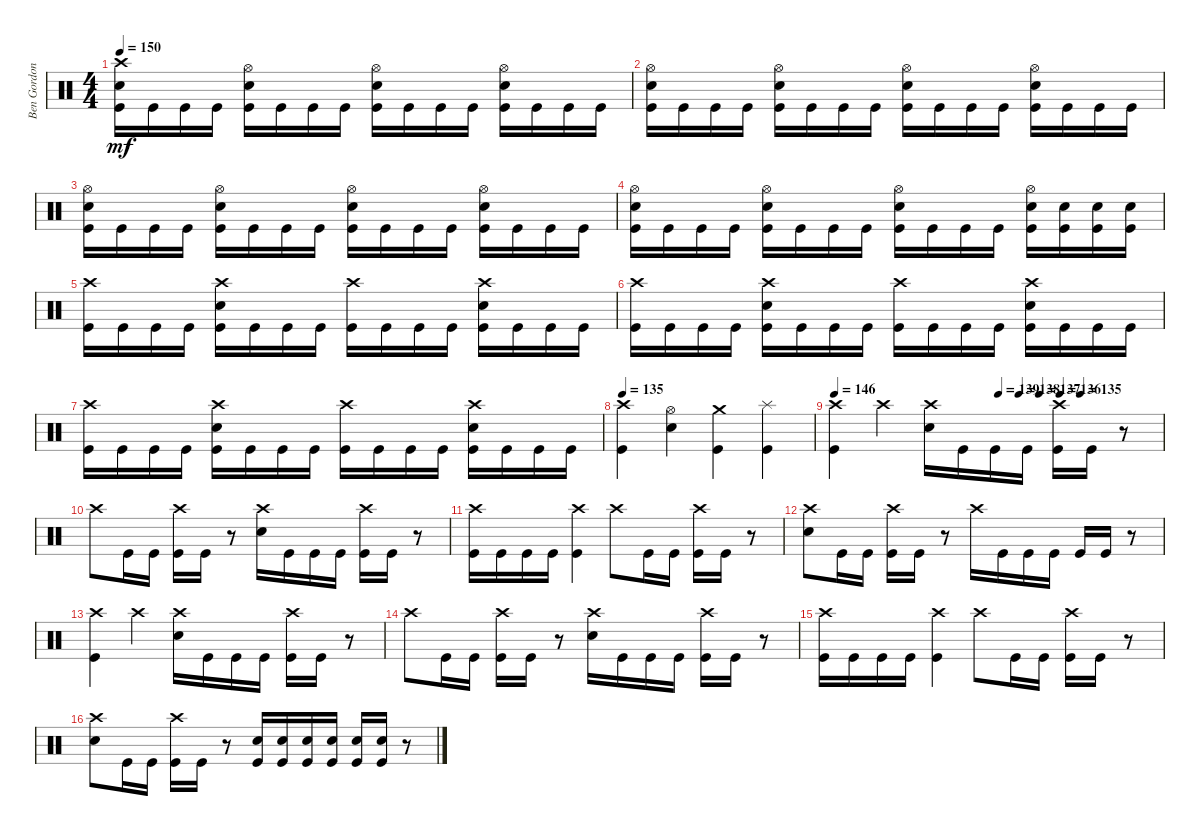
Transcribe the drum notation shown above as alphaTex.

\track ("Ben Gordon" "Ben Gordon") {instrument percussion}
\staff {score}
\articulation defaults
\ts (4 4)
\tempo 150
\clef neutral
\ks c
("Crash high (hit)" "Snare (hit) 2" "Kick (hit)").16{dy mf} "Kick (hit)".16 "Kick (hit)".16 "Kick (hit)".16 ("Hi-Hat (open)" "Snare (hit) 2" "Kick (hit)").16 "Kick (hit)".16 "Kick (hit)".16 "Kick (hit)".16 ("Hi-Hat (open)" "Snare (hit) 2" "Kick (hit)").16 "Kick (hit)".16 "Kick (hit)".16 "Kick (hit)".16 ("Hi-Hat (open)" "Snare (hit) 2" "Kick (hit)").16 "Kick (hit)".16 "Kick (hit)".16 "Kick (hit)".16 |
("Hi-Hat (open)" "Snare (hit) 2" "Kick (hit)").16 "Kick (hit)".16 "Kick (hit)".16 "Kick (hit)".16 ("Hi-Hat (open)" "Snare (hit) 2" "Kick (hit)").16 "Kick (hit)".16 "Kick (hit)".16 "Kick (hit)".16 ("Hi-Hat (open)" "Snare (hit) 2" "Kick (hit)").16 "Kick (hit)".16 "Kick (hit)".16 "Kick (hit)".16 ("Hi-Hat (open)" "Snare (hit) 2" "Kick (hit)").16 "Kick (hit)".16 "Kick (hit)".16 "Kick (hit)".16 |
("Hi-Hat (open)" "Snare (hit) 2" "Kick (hit)").16 "Kick (hit)".16 "Kick (hit)".16 "Kick (hit)".16 ("Hi-Hat (open)" "Snare (hit) 2" "Kick (hit)").16 "Kick (hit)".16 "Kick (hit)".16 "Kick (hit)".16 ("Hi-Hat (open)" "Snare (hit) 2" "Kick (hit)").16 "Kick (hit)".16 "Kick (hit)".16 "Kick (hit)".16 ("Hi-Hat (open)" "Snare (hit) 2" "Kick (hit)").16 "Kick (hit)".16 "Kick (hit)".16 "Kick (hit)".16 |
("Hi-Hat (open)" "Snare (hit) 2" "Kick (hit)").16 "Kick (hit)".16 "Kick (hit)".16 "Kick (hit)".16 ("Hi-Hat (open)" "Snare (hit) 2" "Kick (hit)").16 "Kick (hit)".16 "Kick (hit)".16 "Kick (hit)".16 ("Hi-Hat (open)" "Snare (hit) 2" "Kick (hit)").16 "Kick (hit)".16 "Kick (hit)".16 "Kick (hit)".16 ("Hi-Hat (open)" "Snare (hit) 2" "Kick (hit)").16 ("Snare (hit) 2" "Kick (hit)").16 ("Snare (hit) 2" "Kick (hit)").16 ("Snare (hit) 2" "Kick (hit)").16 |
("Crash high (hit)" "Kick (hit)").16 "Kick (hit)".16 "Kick (hit)".16 "Kick (hit)".16 ("Crash high (hit)" "Snare (hit) 2" "Kick (hit)").16 "Kick (hit)".16 "Kick (hit)".16 "Kick (hit)".16 ("Crash high (hit)" "Kick (hit)").16 "Kick (hit)".16 "Kick (hit)".16 "Kick (hit)".16 ("Crash high (hit)" "Snare (hit) 2" "Kick (hit)").16 "Kick (hit)".16 "Kick (hit)".16 "Kick (hit)".16 |
("Crash high (hit)" "Kick (hit)").16 "Kick (hit)".16 "Kick (hit)".16 "Kick (hit)".16 ("Crash high (hit)" "Snare (hit) 2" "Kick (hit)").16 "Kick (hit)".16 "Kick (hit)".16 "Kick (hit)".16 ("Crash high (hit)" "Kick (hit)").16 "Kick (hit)".16 "Kick (hit)".16 "Kick (hit)".16 ("Crash high (hit)" "Snare (hit) 2" "Kick (hit)").16 "Kick (hit)".16 "Kick (hit)".16 "Kick (hit)".16 |
("Crash high (hit)" "Kick (hit)").16 "Kick (hit)".16 "Kick (hit)".16 "Kick (hit)".16 ("Crash high (hit)" "Snare (hit) 2" "Kick (hit)").16 "Kick (hit)".16 "Kick (hit)".16 "Kick (hit)".16 ("Crash high (hit)" "Kick (hit)").16 "Kick (hit)".16 "Kick (hit)".16 "Kick (hit)".16 ("Crash high (hit)" "Snare (hit) 2" "Kick (hit)").16 "Kick (hit)".16 "Kick (hit)".16 "Kick (hit)".16 |
\tempo 135
("Crash high (hit)" "Kick (hit)").4 ("Hi-Hat (open)" "Snare (hit) 2").4 ("Crash medium (hit)" "Kick (hit)").4 ("Splash (hit)" "Kick (hit)").4 |
\tempo 146
\tempo (139 0.5)
\tempo (138 0.5625)
\tempo (137 0.625)
\tempo (136 0.6875)
\tempo (135 0.75)
("Crash high (hit)" "Kick (hit)").4 "Crash high (hit)".4 ("Crash high (hit)" "Snare (hit) 2").16 "Kick (hit)".16 "Kick (hit)".16 "Kick (hit)".16 ("Crash high (hit)" "Kick (hit)").16 "Kick (hit)".16 r.8 |
"Crash high (hit)".8 "Kick (hit)".16 "Kick (hit)".16 ("Crash high (hit)" "Kick (hit)").16 "Kick (hit)".16 r.8 ("Crash high (hit)" "Snare (hit) 2").16 "Kick (hit)".16 "Kick (hit)".16 "Kick (hit)".16 ("Crash high (hit)" "Kick (hit)").16 "Kick (hit)".16 r.8 |
("Crash high (hit)" "Kick (hit)").16 "Kick (hit)".16 "Kick (hit)".16 "Kick (hit)".16 ("Crash high (hit)" "Kick (hit)").4 "Crash high (hit)".8 "Kick (hit)".16 "Kick (hit)".16 ("Crash high (hit)" "Kick (hit)").16 "Kick (hit)".16 r.8 |
("Crash high (hit)" "Snare (hit) 2").8 "Kick (hit)".16 "Kick (hit)".16 ("Crash high (hit)" "Kick (hit)").16 "Kick (hit)".16 r.8 "Crash high (hit)".16 "Kick (hit)".16 "Kick (hit)".16 "Kick (hit)".16 "Kick (hit)".16 "Kick (hit)".16 r.8 |
("Crash high (hit)" "Kick (hit)").4 "Crash high (hit)".4 ("Crash high (hit)" "Snare (hit) 2").16 "Kick (hit)".16 "Kick (hit)".16 "Kick (hit)".16 ("Crash high (hit)" "Kick (hit)").16 "Kick (hit)".16 r.8 |
"Crash high (hit)".8 "Kick (hit)".16 "Kick (hit)".16 ("Crash high (hit)" "Kick (hit)").16 "Kick (hit)".16 r.8 ("Crash high (hit)" "Snare (hit) 2").16 "Kick (hit)".16 "Kick (hit)".16 "Kick (hit)".16 ("Crash high (hit)" "Kick (hit)").16 "Kick (hit)".16 r.8 |
("Crash high (hit)" "Kick (hit)").16 "Kick (hit)".16 "Kick (hit)".16 "Kick (hit)".16 ("Crash high (hit)" "Kick (hit)").4 "Crash high (hit)".8 "Kick (hit)".16 "Kick (hit)".16 ("Crash high (hit)" "Kick (hit)").16 "Kick (hit)".16 r.8 |
("Crash high (hit)" "Snare (hit) 2").8 "Kick (hit)".16 "Kick (hit)".16 ("Crash high (hit)" "Kick (hit)").16 "Kick (hit)".16 r.8 ("Snare (hit) 2" "Kick (hit)").16 ("Snare (hit) 2" "Kick (hit)").16 ("Snare (hit) 2" "Kick (hit)").16 ("Snare (hit) 2" "Kick (hit)").16 ("Snare (hit) 2" "Kick (hit)").16 ("Snare (hit) 2" "Kick (hit)").16 r.8
